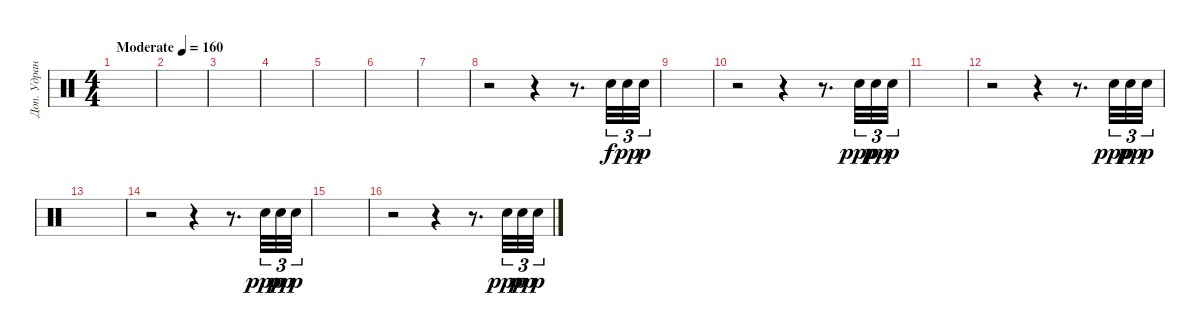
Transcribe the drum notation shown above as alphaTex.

\track ("Доп. Удраные" "Доп. Удран") {instrument percussion}
\staff {score}
\articulation defaults
\ts (4 4)
\tempo (160 "Moderate")
\clef neutral
\ks c
|
|
|
|
|
|
|
r.2 r.4 r.8{d} "Snare (hit) 2".32{tu (3 2)} "Snare (hit) 2".32{tu (3 2) dy pp} "Snare (hit) 2".32{tu (3 2) dy p} |
|
r.2 r.4 r.8{d} "Snare (hit) 2".32{tu (3 2) dy ppp} "Snare (hit) 2".32{tu (3 2) dy pp} "Snare (hit) 2".32{tu (3 2) dy p} |
|
r.2 r.4 r.8{d} "Snare (hit) 2".32{tu (3 2) dy ppp} "Snare (hit) 2".32{tu (3 2) dy pp} "Snare (hit) 2".32{tu (3 2) dy p} |
|
r.2 r.4 r.8{d} "Snare (hit) 2".32{tu (3 2) dy ppp} "Snare (hit) 2".32{tu (3 2) dy pp} "Snare (hit) 2".32{tu (3 2) dy p} |
|
r.2 r.4 r.8{d} "Snare (hit) 2".32{tu (3 2) dy ppp} "Snare (hit) 2".32{tu (3 2) dy pp} "Snare (hit) 2".32{tu (3 2) dy p}
